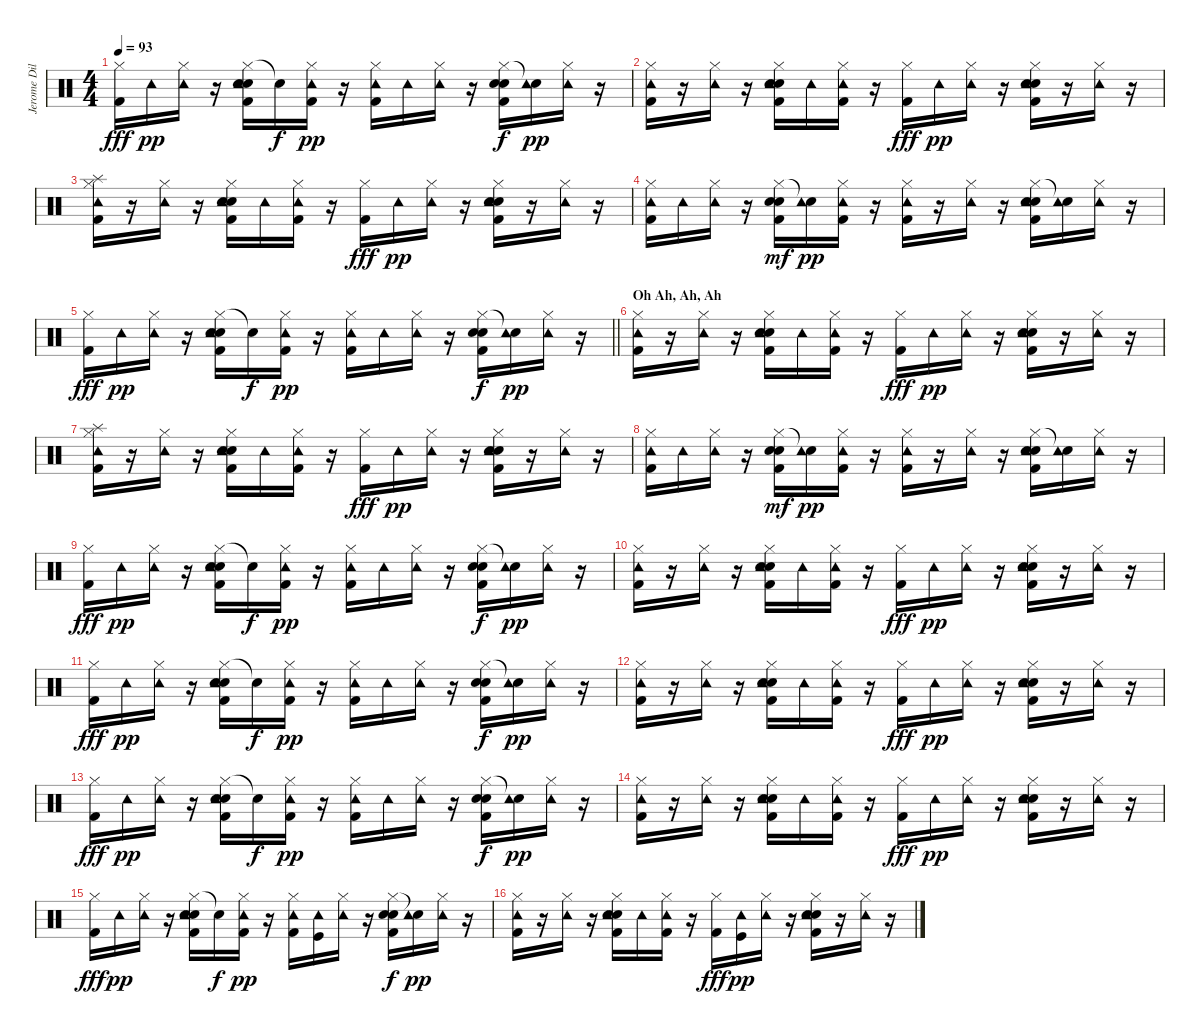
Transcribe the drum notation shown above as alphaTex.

\track ("Jerome Dillon" "Jerome Dil") {instrument percussion}
\staff {score}
\articulation defaults
\ts (4 4)
\tempo 93
\clef neutral
\ks c
("Hi-Hat (closed)" "Kick (hit) 2").16{dy fff} "Tambourine (hit)".16{dy pp} ("Hi-Hat (closed)" "Tambourine (hit)").16 r.16 ("Hi-Hat (closed)" "Hand Clap (hit)" "Snare (hit) 2" "Kick (hit) 2" "Tambourine (hit)").16 "Snare (hit)"{t}.16{dy f} ("Hi-Hat (closed)" "Kick (hit) 2" "Tambourine (hit)").16{dy pp} r.16 ("Hi-Hat (closed)" "Kick (hit) 2" "Tambourine (hit)").16 "Tambourine (hit)".16 ("Hi-Hat (closed)" "Tambourine (hit)").16 r.16 ("Hi-Hat (closed)" "Hand Clap (hit)" "Snare (hit) 2" "Kick (hit) 2").16{dy f} ("Snare (hit)"{t} "Tambourine (hit)").16{dy pp} ("Hi-Hat (closed)" "Tambourine (hit)").16 r.16 |
("Hi-Hat (closed)" "Kick (hit) 2" "Tambourine (hit)").16 r.16 ("Hi-Hat (closed)" "Tambourine (hit)").16 r.16 ("Hi-Hat (closed)" "Hand Clap (hit)" "Snare (hit) 2" "Kick (hit) 2" "Tambourine (hit)").16 "Tambourine (hit)".16 ("Hi-Hat (closed)" "Kick (hit) 2" "Tambourine (hit)").16 r.16 ("Hi-Hat (closed)" "Kick (hit) 2").16{dy fff} "Tambourine (hit)".16{dy pp} ("Hi-Hat (closed)" "Tambourine (hit)").16 r.16 ("Hi-Hat (closed)" "Hand Clap (hit)" "Snare (hit) 2" "Kick (hit) 2" "Tambourine (hit)").16 r.16 ("Hi-Hat (closed)" "Tambourine (hit)").16 r.16 |
("Hi-Hat (closed)" "Splash (hit)" "Kick (hit) 2" "Tambourine (hit)").16 r.16 ("Hi-Hat (closed)" "Tambourine (hit)").16 r.16 ("Hi-Hat (closed)" "Hand Clap (hit)" "Snare (hit) 2" "Kick (hit) 2" "Tambourine (hit)").16 "Tambourine (hit)".16 ("Hi-Hat (closed)" "Kick (hit) 2" "Tambourine (hit)").16 r.16 ("Hi-Hat (closed)" "Kick (hit) 2").16{dy fff} "Tambourine (hit)".16{dy pp} ("Hi-Hat (closed)" "Tambourine (hit)").16 r.16 ("Hi-Hat (closed)" "Hand Clap (hit)" "Snare (hit) 2" "Kick (hit) 2" "Tambourine (hit)").16 r.16 ("Hi-Hat (closed)" "Tambourine (hit)").16 r.16 |
("Hi-Hat (closed)" "Kick (hit) 2" "Tambourine (hit)").16 "Tambourine (hit)".16 ("Hi-Hat (closed)" "Tambourine (hit)").16 r.16 ("Hi-Hat (closed)" "Hand Clap (hit)" "Snare (hit) 2" "Kick (hit) 2").16{dy mf} ("Snare (hit)"{t} "Tambourine (hit)").16{dy pp} ("Hi-Hat (closed)" "Kick (hit) 2" "Tambourine (hit)").16 r.16 ("Hi-Hat (closed)" "Kick (hit) 2" "Tambourine (hit)").16 r.16 ("Hi-Hat (closed)" "Tambourine (hit)").16 r.16 ("Hi-Hat (closed)" "Hand Clap (hit)" "Snare (hit) 2" "Kick (hit) 2" "Tambourine (hit)").16 ("Snare (hit)"{t} "Tambourine (hit)").16 ("Hi-Hat (closed)" "Tambourine (hit)").16 r.16 |
\barLineRight lightlight
("Hi-Hat (closed)" "Kick (hit) 2").16{dy fff} "Tambourine (hit)".16{dy pp} ("Hi-Hat (closed)" "Tambourine (hit)").16 r.16 ("Hi-Hat (closed)" "Hand Clap (hit)" "Snare (hit) 2" "Kick (hit) 2" "Tambourine (hit)").16 "Snare (hit)"{t}.16{dy f} ("Hi-Hat (closed)" "Kick (hit) 2" "Tambourine (hit)").16{dy pp} r.16 ("Hi-Hat (closed)" "Kick (hit) 2" "Tambourine (hit)").16 "Tambourine (hit)".16 ("Hi-Hat (closed)" "Tambourine (hit)").16 r.16 ("Hi-Hat (closed)" "Hand Clap (hit)" "Snare (hit) 2" "Kick (hit) 2").16{dy f} ("Snare (hit)"{t} "Tambourine (hit)").16{dy pp} ("Hi-Hat (closed)" "Tambourine (hit)").16 r.16 |
\section ("" "Oh Ah, Ah, Ah")
("Hi-Hat (closed)" "Kick (hit) 2" "Tambourine (hit)").16 r.16 ("Hi-Hat (closed)" "Tambourine (hit)").16 r.16 ("Hi-Hat (closed)" "Hand Clap (hit)" "Snare (hit) 2" "Kick (hit) 2" "Tambourine (hit)").16 "Tambourine (hit)".16 ("Hi-Hat (closed)" "Kick (hit) 2" "Tambourine (hit)").16 r.16 ("Hi-Hat (closed)" "Kick (hit) 2").16{dy fff} "Tambourine (hit)".16{dy pp} ("Hi-Hat (closed)" "Tambourine (hit)").16 r.16 ("Hi-Hat (closed)" "Hand Clap (hit)" "Snare (hit) 2" "Kick (hit) 2" "Tambourine (hit)").16 r.16 ("Hi-Hat (closed)" "Tambourine (hit)").16 r.16 |
("Hi-Hat (closed)" "Splash (hit)" "Kick (hit) 2" "Tambourine (hit)").16 r.16 ("Hi-Hat (closed)" "Tambourine (hit)").16 r.16 ("Hi-Hat (closed)" "Hand Clap (hit)" "Snare (hit) 2" "Kick (hit) 2" "Tambourine (hit)").16 "Tambourine (hit)".16 ("Hi-Hat (closed)" "Kick (hit) 2" "Tambourine (hit)").16 r.16 ("Hi-Hat (closed)" "Kick (hit) 2").16{dy fff} "Tambourine (hit)".16{dy pp} ("Hi-Hat (closed)" "Tambourine (hit)").16 r.16 ("Hi-Hat (closed)" "Hand Clap (hit)" "Snare (hit) 2" "Kick (hit) 2" "Tambourine (hit)").16 r.16 ("Hi-Hat (closed)" "Tambourine (hit)").16 r.16 |
("Hi-Hat (closed)" "Kick (hit) 2" "Tambourine (hit)").16 "Tambourine (hit)".16 ("Hi-Hat (closed)" "Tambourine (hit)").16 r.16 ("Hi-Hat (closed)" "Hand Clap (hit)" "Snare (hit) 2" "Kick (hit) 2").16{dy mf} ("Snare (hit)"{t} "Tambourine (hit)").16{dy pp} ("Hi-Hat (closed)" "Kick (hit) 2" "Tambourine (hit)").16 r.16 ("Hi-Hat (closed)" "Kick (hit) 2" "Tambourine (hit)").16 r.16 ("Hi-Hat (closed)" "Tambourine (hit)").16 r.16 ("Hi-Hat (closed)" "Hand Clap (hit)" "Snare (hit) 2" "Kick (hit) 2" "Tambourine (hit)").16 ("Snare (hit)"{t} "Tambourine (hit)").16 ("Hi-Hat (closed)" "Tambourine (hit)").16 r.16 |
("Hi-Hat (closed)" "Kick (hit) 2").16{dy fff} "Tambourine (hit)".16{dy pp} ("Hi-Hat (closed)" "Tambourine (hit)").16 r.16 ("Hi-Hat (closed)" "Hand Clap (hit)" "Snare (hit) 2" "Kick (hit) 2" "Tambourine (hit)").16 "Snare (hit)"{t}.16{dy f} ("Hi-Hat (closed)" "Kick (hit) 2" "Tambourine (hit)").16{dy pp} r.16 ("Hi-Hat (closed)" "Kick (hit) 2" "Tambourine (hit)").16 "Tambourine (hit)".16 ("Hi-Hat (closed)" "Tambourine (hit)").16 r.16 ("Hi-Hat (closed)" "Hand Clap (hit)" "Snare (hit) 2" "Kick (hit) 2").16{dy f} ("Snare (hit)"{t} "Tambourine (hit)").16{dy pp} ("Hi-Hat (closed)" "Tambourine (hit)").16 r.16 |
("Hi-Hat (closed)" "Kick (hit) 2" "Tambourine (hit)").16 r.16 ("Hi-Hat (closed)" "Tambourine (hit)").16 r.16 ("Hi-Hat (closed)" "Hand Clap (hit)" "Snare (hit) 2" "Kick (hit) 2" "Tambourine (hit)").16 "Tambourine (hit)".16 ("Hi-Hat (closed)" "Kick (hit) 2" "Tambourine (hit)").16 r.16 ("Hi-Hat (closed)" "Kick (hit) 2").16{dy fff} "Tambourine (hit)".16{dy pp} ("Hi-Hat (closed)" "Tambourine (hit)").16 r.16 ("Hi-Hat (closed)" "Hand Clap (hit)" "Snare (hit) 2" "Kick (hit) 2" "Tambourine (hit)").16 r.16 ("Hi-Hat (closed)" "Tambourine (hit)").16 r.16 |
("Hi-Hat (closed)" "Kick (hit) 2").16{dy fff} "Tambourine (hit)".16{dy pp} ("Hi-Hat (closed)" "Tambourine (hit)").16 r.16 ("Hi-Hat (closed)" "Hand Clap (hit)" "Snare (hit) 2" "Kick (hit) 2" "Tambourine (hit)").16 "Snare (hit)"{t}.16{dy f} ("Hi-Hat (closed)" "Kick (hit) 2" "Tambourine (hit)").16{dy pp} r.16 ("Hi-Hat (closed)" "Kick (hit) 2" "Tambourine (hit)").16 "Tambourine (hit)".16 ("Hi-Hat (closed)" "Tambourine (hit)").16 r.16 ("Hi-Hat (closed)" "Hand Clap (hit)" "Snare (hit) 2" "Kick (hit) 2").16{dy f} ("Snare (hit)"{t} "Tambourine (hit)").16{dy pp} ("Hi-Hat (closed)" "Tambourine (hit)").16 r.16 |
("Hi-Hat (closed)" "Kick (hit) 2" "Tambourine (hit)").16 r.16 ("Hi-Hat (closed)" "Tambourine (hit)").16 r.16 ("Hi-Hat (closed)" "Hand Clap (hit)" "Snare (hit) 2" "Kick (hit) 2" "Tambourine (hit)").16 "Tambourine (hit)".16 ("Hi-Hat (closed)" "Kick (hit) 2" "Tambourine (hit)").16 r.16 ("Hi-Hat (closed)" "Kick (hit) 2").16{dy fff} "Tambourine (hit)".16{dy pp} ("Hi-Hat (closed)" "Tambourine (hit)").16 r.16 ("Hi-Hat (closed)" "Hand Clap (hit)" "Snare (hit) 2" "Kick (hit) 2" "Tambourine (hit)").16 r.16 ("Hi-Hat (closed)" "Tambourine (hit)").16 r.16 |
("Hi-Hat (closed)" "Kick (hit) 2").16{dy fff} "Tambourine (hit)".16{dy pp} ("Hi-Hat (closed)" "Tambourine (hit)").16 r.16 ("Hi-Hat (closed)" "Hand Clap (hit)" "Snare (hit) 2" "Kick (hit) 2" "Tambourine (hit)").16 "Snare (hit)"{t}.16{dy f} ("Hi-Hat (closed)" "Kick (hit) 2" "Tambourine (hit)").16{dy pp} r.16 ("Hi-Hat (closed)" "Kick (hit) 2" "Tambourine (hit)").16 "Tambourine (hit)".16 ("Hi-Hat (closed)" "Tambourine (hit)").16 r.16 ("Hi-Hat (closed)" "Hand Clap (hit)" "Snare (hit) 2" "Kick (hit) 2").16{dy f} ("Snare (hit)"{t} "Tambourine (hit)").16{dy pp} ("Hi-Hat (closed)" "Tambourine (hit)").16 r.16 |
("Hi-Hat (closed)" "Kick (hit) 2" "Tambourine (hit)").16 r.16 ("Hi-Hat (closed)" "Tambourine (hit)").16 r.16 ("Hi-Hat (closed)" "Hand Clap (hit)" "Snare (hit) 2" "Kick (hit) 2" "Tambourine (hit)").16 "Tambourine (hit)".16 ("Hi-Hat (closed)" "Kick (hit) 2" "Tambourine (hit)").16 r.16 ("Hi-Hat (closed)" "Kick (hit) 2").16{dy fff} "Tambourine (hit)".16{dy pp} ("Hi-Hat (closed)" "Tambourine (hit)").16 r.16 ("Hi-Hat (closed)" "Hand Clap (hit)" "Snare (hit) 2" "Kick (hit) 2" "Tambourine (hit)").16 r.16 ("Hi-Hat (closed)" "Tambourine (hit)").16 r.16 |
("Hi-Hat (closed)" "Kick (hit) 2").16{dy fff} "Tambourine (hit)".16{dy pp} ("Hi-Hat (closed)" "Tambourine (hit)").16 r.16 ("Hi-Hat (closed)" "Hand Clap (hit)" "Snare (hit) 2" "Kick (hit) 2" "Tambourine (hit)").16 "Snare (hit)"{t}.16{dy f} ("Hi-Hat (closed)" "Kick (hit) 2" "Tambourine (hit)").16{dy pp} r.16 ("Hi-Hat (closed)" "Kick (hit) 2" "Tambourine (hit)").16 ("Kick (hit)" "Tambourine (hit)").16 ("Hi-Hat (closed)" "Tambourine (hit)").16 r.16 ("Hi-Hat (closed)" "Hand Clap (hit)" "Snare (hit) 2" "Kick (hit) 2").16{dy f} ("Snare (hit)"{t} "Tambourine (hit)").16{dy pp} ("Hi-Hat (closed)" "Tambourine (hit)").16 r.16 |
("Hi-Hat (closed)" "Kick (hit) 2" "Tambourine (hit)").16 r.16 ("Hi-Hat (closed)" "Tambourine (hit)").16 r.16 ("Hi-Hat (closed)" "Hand Clap (hit)" "Snare (hit) 2" "Kick (hit) 2" "Tambourine (hit)").16 "Tambourine (hit)".16 ("Hi-Hat (closed)" "Kick (hit) 2" "Tambourine (hit)").16 r.16 ("Hi-Hat (closed)" "Kick (hit) 2").16{dy fff} ("Kick (hit)" "Tambourine (hit)").16{dy pp} ("Hi-Hat (closed)" "Tambourine (hit)").16 r.16 ("Hi-Hat (closed)" "Hand Clap (hit)" "Snare (hit) 2" "Kick (hit) 2" "Tambourine (hit)").16 r.16 ("Hi-Hat (closed)" "Tambourine (hit)").16 r.16
